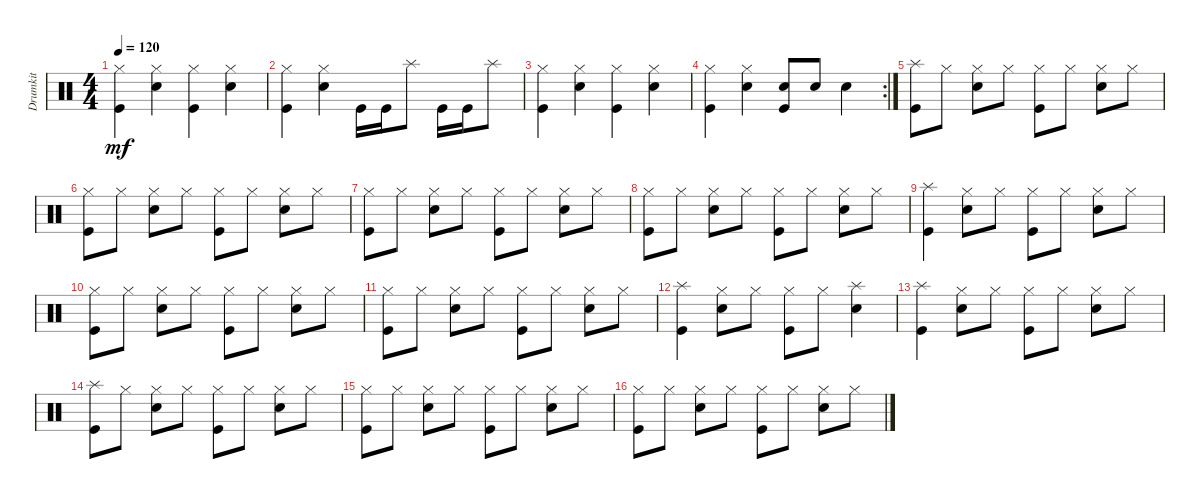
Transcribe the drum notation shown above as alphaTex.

\track ("Drumkit" "Drumkit") {instrument percussion}
\staff {score}
\articulation defaults
\ts (4 4)
\tempo 120
\clef neutral
\ks c
("Hi-Hat (closed)" "Kick (hit)").4{dy mf} ("Hi-Hat (closed)" "Snare (hit) 2").4 ("Hi-Hat (closed)" "Kick (hit)").4 ("Hi-Hat (closed)" "Snare (hit) 2").4 |
("Kick (hit)" "Hi-Hat (closed)").4 ("Snare (hit) 2" "Hi-Hat (closed)").4 "Kick (hit)".16 "Kick (hit)".16 "Splash (hit)".8 "Kick (hit)".16 "Kick (hit)".16 "Splash (hit)".8 |
("Hi-Hat (closed)" "Kick (hit)").4 ("Hi-Hat (closed)" "Snare (hit) 2").4 ("Hi-Hat (closed)" "Kick (hit)").4 ("Hi-Hat (closed)" "Snare (hit) 2").4 |
\rc 2
("Kick (hit)" "Hi-Hat (closed)").4 ("Snare (hit) 2" "Hi-Hat (closed)").4 ("Snare (hit) 2" "Kick (hit)").8 "Snare (hit) 2".8 "Snare (hit) 2".4 |
("Kick (hit)" "Splash (hit)").8 "Hi-Hat (closed)".8 ("Hi-Hat (closed)" "Snare (hit) 2").8 "Hi-Hat (closed)".8 ("Hi-Hat (closed)" "Kick (hit)").8 "Hi-Hat (closed)".8 ("Hi-Hat (closed)" "Snare (hit) 2").8 "Hi-Hat (closed)".8 |
("Hi-Hat (closed)" "Kick (hit)").8 "Hi-Hat (closed)".8 ("Hi-Hat (closed)" "Snare (hit) 2").8 "Hi-Hat (closed)".8 ("Hi-Hat (closed)" "Kick (hit)").8 "Hi-Hat (closed)".8 ("Hi-Hat (closed)" "Snare (hit) 2").8 "Hi-Hat (closed)".8 |
("Hi-Hat (closed)" "Kick (hit)").8 "Hi-Hat (closed)".8 ("Hi-Hat (closed)" "Snare (hit) 2").8 "Hi-Hat (closed)".8 ("Hi-Hat (closed)" "Kick (hit)").8 "Hi-Hat (closed)".8 ("Hi-Hat (closed)" "Snare (hit) 2").8 "Hi-Hat (closed)".8 |
("Hi-Hat (closed)" "Kick (hit)").8 "Hi-Hat (closed)".8 ("Hi-Hat (closed)" "Snare (hit) 2").8 "Hi-Hat (closed)".8 ("Hi-Hat (closed)" "Kick (hit)").8 "Hi-Hat (closed)".8 ("Hi-Hat (closed)" "Snare (hit) 2").8 "Hi-Hat (closed)".8 |
("Kick (hit)" "Splash (hit)").4 ("Hi-Hat (closed)" "Snare (hit) 2").8 "Hi-Hat (closed)".8 ("Hi-Hat (closed)" "Kick (hit)").8 "Hi-Hat (closed)".8 ("Hi-Hat (closed)" "Snare (hit) 2").8 "Hi-Hat (closed)".8 |
("Hi-Hat (closed)" "Kick (hit)").8 "Hi-Hat (closed)".8 ("Hi-Hat (closed)" "Snare (hit) 2").8 "Hi-Hat (closed)".8 ("Hi-Hat (closed)" "Kick (hit)").8 "Hi-Hat (closed)".8 ("Hi-Hat (closed)" "Snare (hit) 2").8 "Hi-Hat (closed)".8 |
("Hi-Hat (closed)" "Kick (hit)").8 "Hi-Hat (closed)".8 ("Hi-Hat (closed)" "Snare (hit) 2").8 "Hi-Hat (closed)".8 ("Hi-Hat (closed)" "Kick (hit)").8 "Hi-Hat (closed)".8 ("Hi-Hat (closed)" "Snare (hit) 2").8 "Hi-Hat (closed)".8 |
("Kick (hit)" "Splash (hit)").4 ("Snare (hit) 2" "Hi-Hat (closed)").8 "Hi-Hat (closed)".8 ("Kick (hit)" "Hi-Hat (closed)").8 "Hi-Hat (closed)".8 ("Snare (hit) 2" "Splash (hit)").4 |
("Kick (hit)" "Splash (hit)").4 ("Hi-Hat (closed)" "Snare (hit) 2").8 "Hi-Hat (closed)".8 ("Hi-Hat (closed)" "Kick (hit)").8 "Hi-Hat (closed)".8 ("Hi-Hat (closed)" "Snare (hit) 2").8 "Hi-Hat (closed)".8 |
("Kick (hit)" "Splash (hit)").8 "Hi-Hat (closed)".8 ("Hi-Hat (closed)" "Snare (hit) 2").8 "Hi-Hat (closed)".8 ("Hi-Hat (closed)" "Kick (hit)").8 "Hi-Hat (closed)".8 ("Hi-Hat (closed)" "Snare (hit) 2").8 "Hi-Hat (closed)".8 |
("Hi-Hat (closed)" "Kick (hit)").8 "Hi-Hat (closed)".8 ("Hi-Hat (closed)" "Snare (hit) 2").8 "Hi-Hat (closed)".8 ("Hi-Hat (closed)" "Kick (hit)").8 "Hi-Hat (closed)".8 ("Hi-Hat (closed)" "Snare (hit) 2").8 "Hi-Hat (closed)".8 |
("Hi-Hat (closed)" "Kick (hit)").8 "Hi-Hat (closed)".8 ("Hi-Hat (closed)" "Snare (hit) 2").8 "Hi-Hat (closed)".8 ("Hi-Hat (closed)" "Kick (hit)").8 "Hi-Hat (closed)".8 ("Hi-Hat (closed)" "Snare (hit) 2").8 "Hi-Hat (closed)".8
